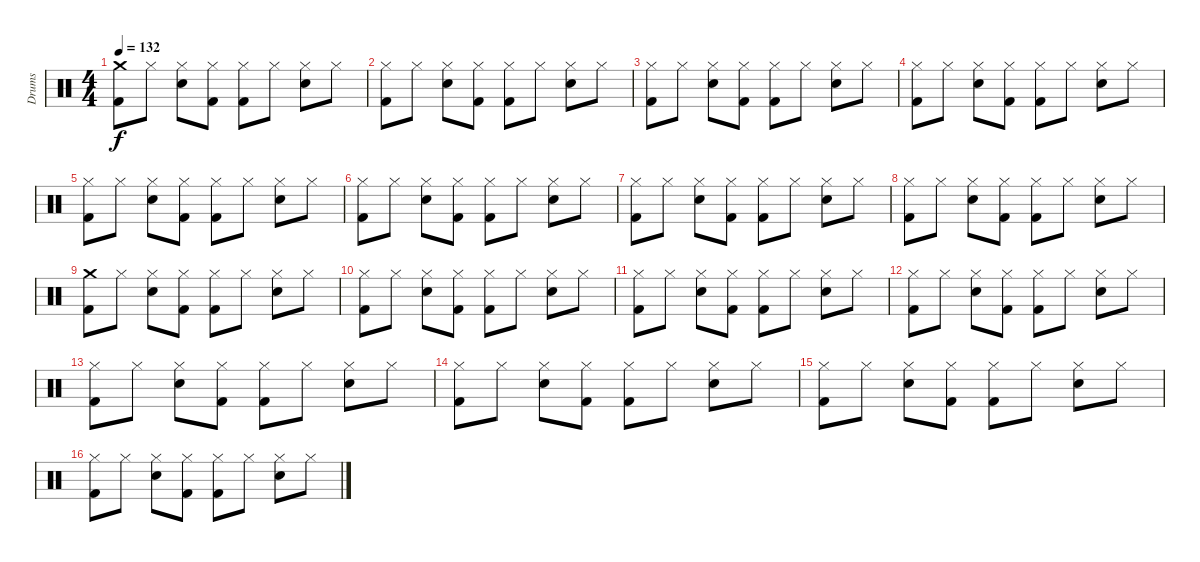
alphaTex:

\track ("Drums" "Drums") {instrument percussion}
\staff {score}
\articulation defaults
\ts (4 4)
\tempo 132
\clef neutral
\ks c
("Crash medium (hit)" "Kick (hit) 2").8{dy f} "Hi-Hat (closed)".8 ("Hi-Hat (closed)" "Snare (hit) 2").8 ("Hi-Hat (closed)" "Kick (hit) 2").8 ("Hi-Hat (closed)" "Kick (hit) 2").8 "Hi-Hat (closed)".8 ("Hi-Hat (closed)" "Snare (hit) 2").8 "Hi-Hat (closed)".8 |
("Hi-Hat (closed)" "Kick (hit) 2").8 "Hi-Hat (closed)".8 ("Hi-Hat (closed)" "Snare (hit) 2").8 ("Hi-Hat (closed)" "Kick (hit) 2").8 ("Hi-Hat (closed)" "Kick (hit) 2").8 "Hi-Hat (closed)".8 ("Hi-Hat (closed)" "Snare (hit) 2").8 "Hi-Hat (closed)".8 |
("Hi-Hat (closed)" "Kick (hit) 2").8 "Hi-Hat (closed)".8 ("Hi-Hat (closed)" "Snare (hit) 2").8 ("Hi-Hat (closed)" "Kick (hit) 2").8 ("Hi-Hat (closed)" "Kick (hit) 2").8 "Hi-Hat (closed)".8 ("Hi-Hat (closed)" "Snare (hit) 2").8 "Hi-Hat (closed)".8 |
("Hi-Hat (closed)" "Kick (hit) 2").8 "Hi-Hat (closed)".8 ("Hi-Hat (closed)" "Snare (hit) 2").8 ("Hi-Hat (closed)" "Kick (hit) 2").8 ("Hi-Hat (closed)" "Kick (hit) 2").8 "Hi-Hat (closed)".8 ("Hi-Hat (closed)" "Snare (hit) 2").8 "Hi-Hat (closed)".8 |
("Hi-Hat (closed)" "Kick (hit) 2").8 "Hi-Hat (closed)".8 ("Hi-Hat (closed)" "Snare (hit) 2").8 ("Hi-Hat (closed)" "Kick (hit) 2").8 ("Hi-Hat (closed)" "Kick (hit) 2").8 "Hi-Hat (closed)".8 ("Hi-Hat (closed)" "Snare (hit) 2").8 "Hi-Hat (closed)".8 |
("Hi-Hat (closed)" "Kick (hit) 2").8 "Hi-Hat (closed)".8 ("Hi-Hat (closed)" "Snare (hit) 2").8 ("Hi-Hat (closed)" "Kick (hit) 2").8 ("Hi-Hat (closed)" "Kick (hit) 2").8 "Hi-Hat (closed)".8 ("Hi-Hat (closed)" "Snare (hit) 2").8 "Hi-Hat (closed)".8 |
("Hi-Hat (closed)" "Kick (hit) 2").8 "Hi-Hat (closed)".8 ("Hi-Hat (closed)" "Snare (hit) 2").8 ("Hi-Hat (closed)" "Kick (hit) 2").8 ("Hi-Hat (closed)" "Kick (hit) 2").8 "Hi-Hat (closed)".8 ("Hi-Hat (closed)" "Snare (hit) 2").8 "Hi-Hat (closed)".8 |
("Hi-Hat (closed)" "Kick (hit) 2").8 "Hi-Hat (closed)".8 ("Hi-Hat (closed)" "Snare (hit) 2").8 ("Hi-Hat (closed)" "Kick (hit) 2").8 ("Hi-Hat (closed)" "Kick (hit) 2").8 "Hi-Hat (closed)".8 ("Hi-Hat (closed)" "Snare (hit) 2").8 "Hi-Hat (closed)".8 |
("Crash medium (hit)" "Kick (hit) 2").8 "Hi-Hat (closed)".8 ("Hi-Hat (closed)" "Snare (hit) 2").8 ("Hi-Hat (closed)" "Kick (hit) 2").8 ("Hi-Hat (closed)" "Kick (hit) 2").8 "Hi-Hat (closed)".8 ("Hi-Hat (closed)" "Snare (hit) 2").8 "Hi-Hat (closed)".8 |
("Hi-Hat (closed)" "Kick (hit) 2").8 "Hi-Hat (closed)".8 ("Hi-Hat (closed)" "Snare (hit) 2").8 ("Hi-Hat (closed)" "Kick (hit) 2").8 ("Hi-Hat (closed)" "Kick (hit) 2").8 "Hi-Hat (closed)".8 ("Hi-Hat (closed)" "Snare (hit) 2").8 "Hi-Hat (closed)".8 |
("Hi-Hat (closed)" "Kick (hit) 2").8 "Hi-Hat (closed)".8 ("Hi-Hat (closed)" "Snare (hit) 2").8 ("Hi-Hat (closed)" "Kick (hit) 2").8 ("Hi-Hat (closed)" "Kick (hit) 2").8 "Hi-Hat (closed)".8 ("Hi-Hat (closed)" "Snare (hit) 2").8 "Hi-Hat (closed)".8 |
("Hi-Hat (closed)" "Kick (hit) 2").8 "Hi-Hat (closed)".8 ("Hi-Hat (closed)" "Snare (hit) 2").8 ("Hi-Hat (closed)" "Kick (hit) 2").8 ("Hi-Hat (closed)" "Kick (hit) 2").8 "Hi-Hat (closed)".8 ("Hi-Hat (closed)" "Snare (hit) 2").8 "Hi-Hat (closed)".8 |
("Hi-Hat (closed)" "Kick (hit) 2").8 "Hi-Hat (closed)".8 ("Hi-Hat (closed)" "Snare (hit) 2").8 ("Hi-Hat (closed)" "Kick (hit) 2").8 ("Hi-Hat (closed)" "Kick (hit) 2").8 "Hi-Hat (closed)".8 ("Hi-Hat (closed)" "Snare (hit) 2").8 "Hi-Hat (closed)".8 |
("Hi-Hat (closed)" "Kick (hit) 2").8 "Hi-Hat (closed)".8 ("Hi-Hat (closed)" "Snare (hit) 2").8 ("Hi-Hat (closed)" "Kick (hit) 2").8 ("Hi-Hat (closed)" "Kick (hit) 2").8 "Hi-Hat (closed)".8 ("Hi-Hat (closed)" "Snare (hit) 2").8 "Hi-Hat (closed)".8 |
("Hi-Hat (closed)" "Kick (hit) 2").8 "Hi-Hat (closed)".8 ("Hi-Hat (closed)" "Snare (hit) 2").8 ("Hi-Hat (closed)" "Kick (hit) 2").8 ("Hi-Hat (closed)" "Kick (hit) 2").8 "Hi-Hat (closed)".8 ("Hi-Hat (closed)" "Snare (hit) 2").8 "Hi-Hat (closed)".8 |
("Hi-Hat (closed)" "Kick (hit) 2").8 "Hi-Hat (closed)".8 ("Hi-Hat (closed)" "Snare (hit) 2").8 ("Hi-Hat (closed)" "Kick (hit) 2").8 ("Hi-Hat (closed)" "Kick (hit) 2").8 "Hi-Hat (closed)".8 ("Hi-Hat (closed)" "Snare (hit) 2").8 "Hi-Hat (closed)".8
